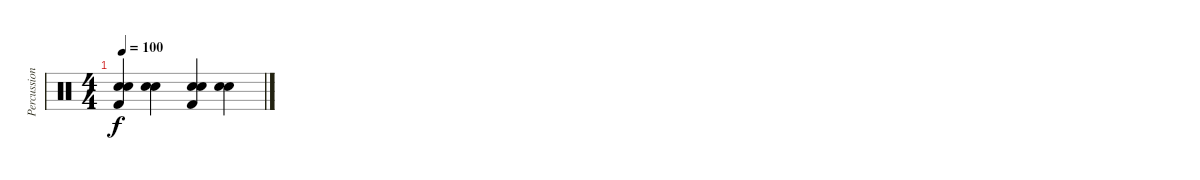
\track ("Percussion" "Percussion") {instrument percussion}
\staff {score}
\articulation defaults
\ts (4 4)
\tempo 100
\clef neutral
\ks c
("Snare (hit) 2" "Hand Clap (hit)" "Kick (hit) 2").4{dy f} ("Snare (hit) 2" "Hand Clap (hit)").4 ("Snare (hit) 2" "Hand Clap (hit)" "Kick (hit) 2").4 ("Snare (hit) 2" "Hand Clap (hit)").4
